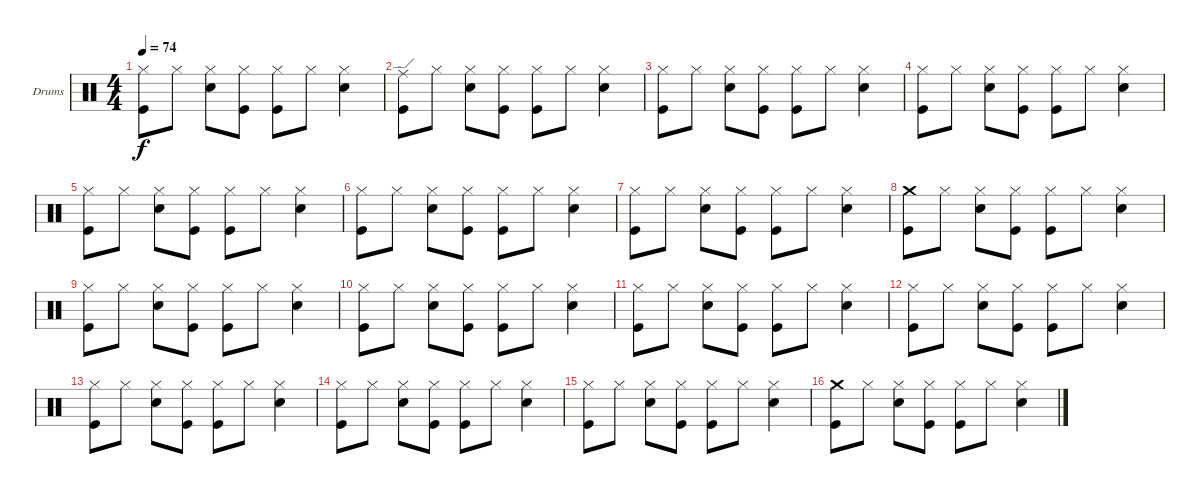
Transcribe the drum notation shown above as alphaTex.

\bracketExtendMode groupsimilarinstruments
\firstSystemTrackNameOrientation horizontal
\otherSystemsTrackNameOrientation horizontal
\track ("Drumkit" "Drums") {instrument percussion}
\staff {score}
\articulation defaults
\ts (4 4)
\tempo 74
\clef neutral
\ks c
("Kick (hit)" "Hi-Hat (closed)").8{dy f} "Hi-Hat (closed)".8 ("Snare (hit) 2" "Hi-Hat (closed)").8 ("Kick (hit)" "Hi-Hat (closed)").8 ("Kick (hit)" "Hi-Hat (closed)").8 "Hi-Hat (closed)".8 ("Snare (hit) 2" "Hi-Hat (closed)").4 |
("Kick (hit)" "Ride (edge)").8 "Hi-Hat (closed)".8 ("Snare (hit) 2" "Hi-Hat (closed)").8 ("Kick (hit)" "Hi-Hat (closed)").8 ("Kick (hit)" "Hi-Hat (closed)").8 "Hi-Hat (closed)".8 ("Snare (hit) 2" "Hi-Hat (closed)").4 |
("Kick (hit)" "Hi-Hat (closed)").8 "Hi-Hat (closed)".8 ("Snare (hit) 2" "Hi-Hat (closed)").8 ("Kick (hit)" "Hi-Hat (closed)").8 ("Kick (hit)" "Hi-Hat (closed)").8 "Hi-Hat (closed)".8 ("Snare (hit) 2" "Hi-Hat (closed)").4 |
("Kick (hit)" "Hi-Hat (closed)").8 "Hi-Hat (closed)".8 ("Snare (hit) 2" "Hi-Hat (closed)").8 ("Kick (hit)" "Hi-Hat (closed)").8 ("Kick (hit)" "Hi-Hat (closed)").8 "Hi-Hat (closed)".8 ("Snare (hit) 2" "Hi-Hat (closed)").4 |
("Kick (hit)" "Hi-Hat (closed)").8 "Hi-Hat (closed)".8 ("Snare (hit) 2" "Hi-Hat (closed)").8 ("Kick (hit)" "Hi-Hat (closed)").8 ("Kick (hit)" "Hi-Hat (closed)").8 "Hi-Hat (closed)".8 ("Snare (hit) 2" "Hi-Hat (closed)").4 |
("Kick (hit)" "Hi-Hat (closed)").8 "Hi-Hat (closed)".8 ("Snare (hit) 2" "Hi-Hat (closed)").8 ("Kick (hit)" "Hi-Hat (closed)").8 ("Kick (hit)" "Hi-Hat (closed)").8 "Hi-Hat (closed)".8 ("Snare (hit) 2" "Hi-Hat (closed)").4 |
("Kick (hit)" "Hi-Hat (closed)").8 "Hi-Hat (closed)".8 ("Snare (hit) 2" "Hi-Hat (closed)").8 ("Kick (hit)" "Hi-Hat (closed)").8 ("Kick (hit)" "Hi-Hat (closed)").8 "Hi-Hat (closed)".8 ("Snare (hit) 2" "Hi-Hat (closed)").4 |
("Kick (hit)" "Crash medium (hit)").8 "Hi-Hat (closed)".8 ("Snare (hit) 2" "Hi-Hat (closed)").8 ("Kick (hit)" "Hi-Hat (closed)").8 ("Kick (hit)" "Hi-Hat (closed)").8 "Hi-Hat (closed)".8 ("Snare (hit) 2" "Hi-Hat (closed)").4 |
("Kick (hit)" "Hi-Hat (closed)").8 "Hi-Hat (closed)".8 ("Snare (hit) 2" "Hi-Hat (closed)").8 ("Kick (hit)" "Hi-Hat (closed)").8 ("Kick (hit)" "Hi-Hat (closed)").8 "Hi-Hat (closed)".8 ("Snare (hit) 2" "Hi-Hat (closed)").4 |
("Kick (hit)" "Hi-Hat (closed)").8 "Hi-Hat (closed)".8 ("Snare (hit) 2" "Hi-Hat (closed)").8 ("Kick (hit)" "Hi-Hat (closed)").8 ("Kick (hit)" "Hi-Hat (closed)").8 "Hi-Hat (closed)".8 ("Snare (hit) 2" "Hi-Hat (closed)").4 |
("Kick (hit)" "Hi-Hat (closed)").8 "Hi-Hat (closed)".8 ("Snare (hit) 2" "Hi-Hat (closed)").8 ("Kick (hit)" "Hi-Hat (closed)").8 ("Kick (hit)" "Hi-Hat (closed)").8 "Hi-Hat (closed)".8 ("Snare (hit) 2" "Hi-Hat (closed)").4 |
("Kick (hit)" "Hi-Hat (closed)").8 "Hi-Hat (closed)".8 ("Snare (hit) 2" "Hi-Hat (closed)").8 ("Kick (hit)" "Hi-Hat (closed)").8 ("Kick (hit)" "Hi-Hat (closed)").8 "Hi-Hat (closed)".8 ("Snare (hit) 2" "Hi-Hat (closed)").4 |
("Kick (hit)" "Hi-Hat (closed)").8 "Hi-Hat (closed)".8 ("Snare (hit) 2" "Hi-Hat (closed)").8 ("Kick (hit)" "Hi-Hat (closed)").8 ("Kick (hit)" "Hi-Hat (closed)").8 "Hi-Hat (closed)".8 ("Snare (hit) 2" "Hi-Hat (closed)").4 |
("Kick (hit)" "Hi-Hat (closed)").8 "Hi-Hat (closed)".8 ("Snare (hit) 2" "Hi-Hat (closed)").8 ("Kick (hit)" "Hi-Hat (closed)").8 ("Kick (hit)" "Hi-Hat (closed)").8 "Hi-Hat (closed)".8 ("Snare (hit) 2" "Hi-Hat (closed)").4 |
("Kick (hit)" "Hi-Hat (closed)").8 "Hi-Hat (closed)".8 ("Snare (hit) 2" "Hi-Hat (closed)").8 ("Kick (hit)" "Hi-Hat (closed)").8 ("Kick (hit)" "Hi-Hat (closed)").8 "Hi-Hat (closed)".8 ("Snare (hit) 2" "Hi-Hat (closed)").4 |
("Kick (hit)" "Crash medium (hit)").8 "Hi-Hat (closed)".8 ("Snare (hit) 2" "Hi-Hat (closed)").8 ("Kick (hit)" "Hi-Hat (closed)").8 ("Kick (hit)" "Hi-Hat (closed)").8 "Hi-Hat (closed)".8 ("Snare (hit) 2" "Hi-Hat (closed)").4
